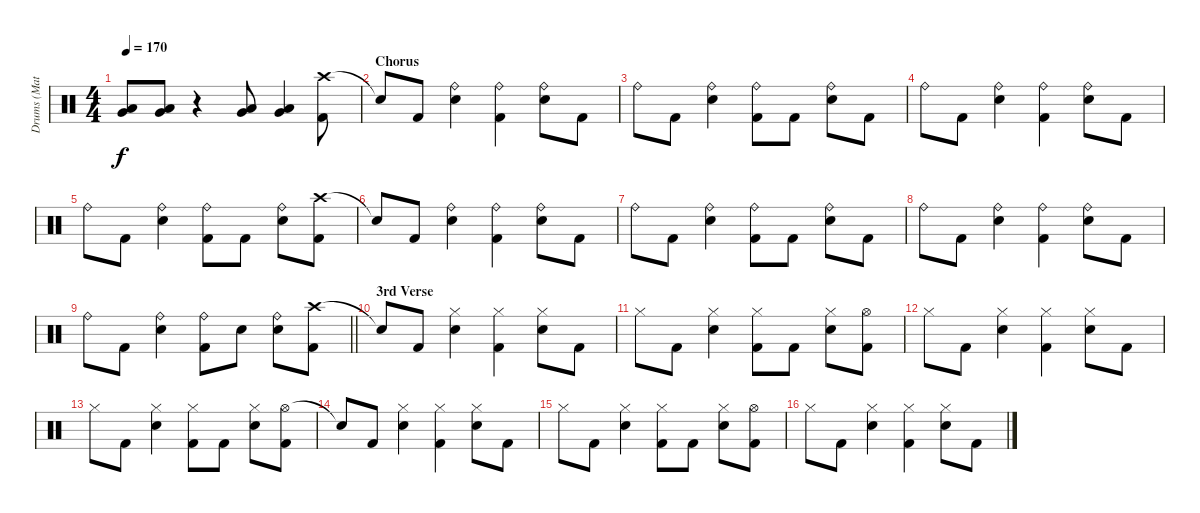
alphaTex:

\track ("Drums (Matt)" "Drums (Mat") {instrument percussion}
\staff {score}
\articulation defaults
\ts (4 4)
\tempo 170
\clef neutral
\ks c
("Low Tom (hit)" "Very Low Tom (hit)").8{dy f} ("Low Tom (hit)" "Very Low Tom (hit)").8 r.4 ("Low Tom (hit)" "Very Low Tom (hit)").8 ("Low Tom (hit)" "Very Low Tom (hit)").4 ("Crash high (hit)" "Kick (hit) 2").8 |
\section ("" "Chorus")
"Snare (hit)"{t}.8 "Kick (hit) 2".8 ("Ride (bell)" "Snare (hit) 2").4 ("Ride (bell)" "Kick (hit) 2").4 ("Ride (bell)" "Snare (hit) 2").8 "Kick (hit) 2".8 |
"Ride (bell)".8 "Kick (hit) 2".8 ("Ride (bell)" "Snare (hit) 2").4 ("Ride (bell)" "Kick (hit) 2").8 "Kick (hit) 2".8 ("Ride (bell)" "Snare (hit) 2").8 "Kick (hit) 2".8 |
"Ride (bell)".8 "Kick (hit) 2".8 ("Ride (bell)" "Snare (hit) 2").4 ("Ride (bell)" "Kick (hit) 2").4 ("Ride (bell)" "Snare (hit) 2").8 "Kick (hit) 2".8 |
"Ride (bell)".8 "Kick (hit) 2".8 ("Ride (bell)" "Snare (hit) 2").4 ("Ride (bell)" "Kick (hit) 2").8 "Kick (hit) 2".8 ("Ride (bell)" "Snare (hit) 2").8 ("Crash high (hit)" "Kick (hit) 2").8 |
"Snare (hit)"{t}.8 "Kick (hit) 2".8 ("Ride (bell)" "Snare (hit) 2").4 ("Ride (bell)" "Kick (hit) 2").4 ("Ride (bell)" "Snare (hit) 2").8 "Kick (hit) 2".8 |
"Ride (bell)".8 "Kick (hit) 2".8 ("Ride (bell)" "Snare (hit) 2").4 ("Ride (bell)" "Kick (hit) 2").8 "Kick (hit) 2".8 ("Ride (bell)" "Snare (hit) 2").8 "Kick (hit) 2".8 |
"Ride (bell)".8 "Kick (hit) 2".8 ("Ride (bell)" "Snare (hit) 2").4 ("Ride (bell)" "Kick (hit) 2").4 ("Ride (bell)" "Snare (hit) 2").8 "Kick (hit) 2".8 |
\barLineRight lightlight "Ride (bell)".8 "Kick (hit) 2".8
("Ride (bell)" "Snare (hit) 2").4 ("Ride (bell)" "Kick (hit) 2").8 "Snare (hit) 2".8 ("Ride (bell)" "Snare (hit) 2").8 ("Crash high (hit)" "Kick (hit) 2").8 |
\section ("" "3rd Verse")
"Snare (hit)"{t}.8 "Kick (hit) 2".8 ("Hi-Hat (closed)" "Snare (hit) 2").4 ("Hi-Hat (closed)" "Kick (hit) 2").4 ("Hi-Hat (closed)" "Snare (hit) 2").8 "Kick (hit) 2".8 |
"Hi-Hat (closed)".8 "Kick (hit) 2".8 ("Hi-Hat (closed)" "Snare (hit) 2").4 ("Hi-Hat (closed)" "Kick (hit) 2").8 "Kick (hit) 2".8 ("Hi-Hat (closed)" "Snare (hit) 2").8 ("Hi-Hat (open)" "Kick (hit) 2").8 |
"Hi-Hat (closed)".8 "Kick (hit) 2".8 ("Hi-Hat (closed)" "Snare (hit) 2").4 ("Hi-Hat (closed)" "Kick (hit) 2").4 ("Hi-Hat (closed)" "Snare (hit) 2").8 "Kick (hit) 2".8 |
"Hi-Hat (closed)".8 "Kick (hit) 2".8 ("Hi-Hat (closed)" "Snare (hit) 2").4 ("Hi-Hat (closed)" "Kick (hit) 2").8 "Kick (hit) 2".8 ("Hi-Hat (closed)" "Snare (hit) 2").8 ("Hi-Hat (open)" "Kick (hit) 2").8 |
"Snare (hit)"{t}.8 "Kick (hit) 2".8 ("Hi-Hat (closed)" "Snare (hit) 2").4 ("Hi-Hat (closed)" "Kick (hit) 2").4 ("Hi-Hat (closed)" "Snare (hit) 2").8 "Kick (hit) 2".8 |
"Hi-Hat (closed)".8 "Kick (hit) 2".8 ("Hi-Hat (closed)" "Snare (hit) 2").4 ("Hi-Hat (closed)" "Kick (hit) 2").8 "Kick (hit) 2".8 ("Hi-Hat (closed)" "Snare (hit) 2").8 ("Hi-Hat (open)" "Kick (hit) 2").8 |
"Hi-Hat (closed)".8 "Kick (hit) 2".8 ("Hi-Hat (closed)" "Snare (hit) 2").4 ("Hi-Hat (closed)" "Kick (hit) 2").4 ("Hi-Hat (closed)" "Snare (hit) 2").8 "Kick (hit) 2".8
